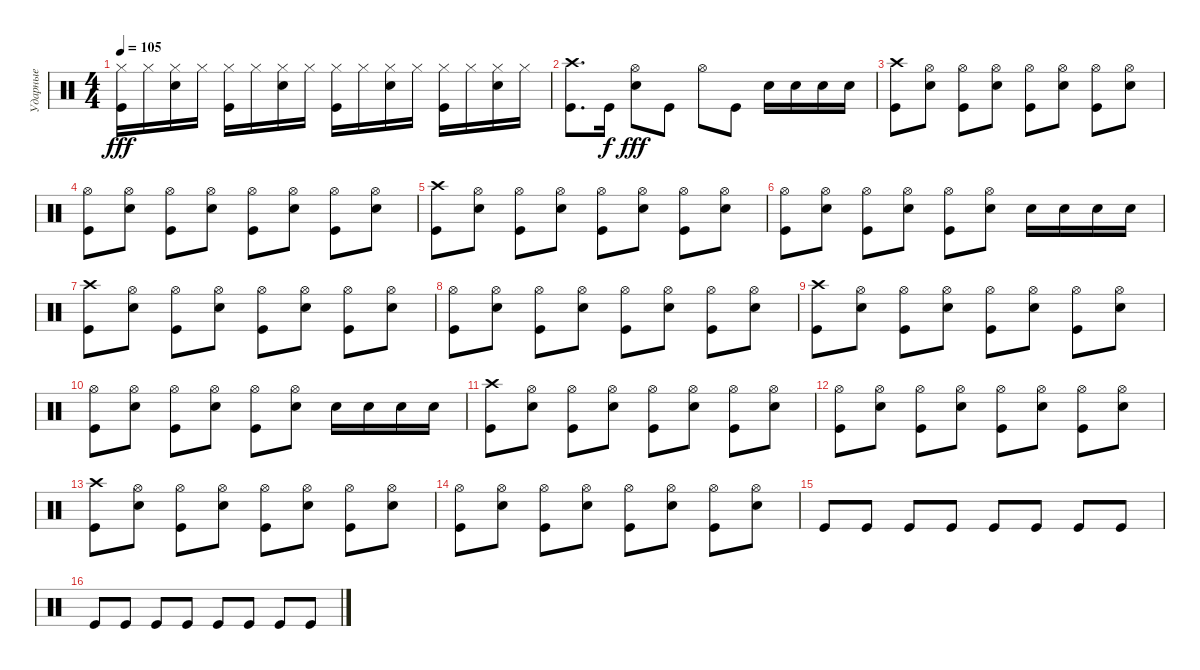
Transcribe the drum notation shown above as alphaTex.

\track ("Ударные" "Ударные") {instrument percussion}
\staff {score}
\articulation defaults
\ts (4 4)
\tempo 105
\clef neutral
\ks c
("Kick (hit)" "Hi-Hat (closed)").16{dy fff} "Hi-Hat (closed)".16 ("Hi-Hat (closed)" "Electric Snare (hit)").16 "Hi-Hat (closed)".16 ("Hi-Hat (closed)" "Kick (hit)").16 "Hi-Hat (closed)".16 ("Hi-Hat (closed)" "Electric Snare (hit)").16 "Hi-Hat (closed)".16 ("Hi-Hat (closed)" "Kick (hit)").16 "Hi-Hat (closed)".16 ("Hi-Hat (closed)" "Electric Snare (hit)").16 "Hi-Hat (closed)".16 ("Hi-Hat (closed)" "Kick (hit)").16 "Hi-Hat (closed)".16 ("Hi-Hat (closed)" "Electric Snare (hit)").16 "Hi-Hat (closed)".16 |
("Crash high (hit)" "Kick (hit)").8{d} "Kick (hit)".16{dy f} ("Hi-Hat (open)" "Electric Snare (hit)").8{dy fff} "Kick (hit)".8 "Hi-Hat (open)".8 "Kick (hit)".8 "Electric Snare (hit)".16 "Electric Snare (hit)".16 "Electric Snare (hit)".16 "Electric Snare (hit)".16 |
("Crash high (hit)" "Kick (hit)").8 ("Electric Snare (hit)" "Hi-Hat (open)").8 ("Hi-Hat (open)" "Kick (hit)").8 ("Hi-Hat (open)" "Electric Snare (hit)").8 ("Kick (hit)" "Hi-Hat (open)").8 ("Electric Snare (hit)" "Hi-Hat (open)").8 ("Kick (hit)" "Hi-Hat (open)").8 ("Electric Snare (hit)" "Hi-Hat (open)").8 |
("Hi-Hat (open)" "Kick (hit)").8 ("Electric Snare (hit)" "Hi-Hat (open)").8 ("Hi-Hat (open)" "Kick (hit)").8 ("Hi-Hat (open)" "Electric Snare (hit)").8 ("Kick (hit)" "Hi-Hat (open)").8 ("Electric Snare (hit)" "Hi-Hat (open)").8 ("Kick (hit)" "Hi-Hat (open)").8 ("Electric Snare (hit)" "Hi-Hat (open)").8 |
("Crash high (hit)" "Kick (hit)").8 ("Electric Snare (hit)" "Hi-Hat (open)").8 ("Hi-Hat (open)" "Kick (hit)").8 ("Hi-Hat (open)" "Electric Snare (hit)").8 ("Kick (hit)" "Hi-Hat (open)").8 ("Electric Snare (hit)" "Hi-Hat (open)").8 ("Kick (hit)" "Hi-Hat (open)").8 ("Electric Snare (hit)" "Hi-Hat (open)").8 |
("Hi-Hat (open)" "Kick (hit)").8 ("Electric Snare (hit)" "Hi-Hat (open)").8 ("Hi-Hat (open)" "Kick (hit)").8 ("Hi-Hat (open)" "Electric Snare (hit)").8 ("Kick (hit)" "Hi-Hat (open)").8 ("Electric Snare (hit)" "Hi-Hat (open)").8 "Electric Snare (hit)".16 "Electric Snare (hit)".16 "Electric Snare (hit)".16 "Electric Snare (hit)".16 |
("Crash high (hit)" "Kick (hit)").8 ("Electric Snare (hit)" "Hi-Hat (open)").8 ("Hi-Hat (open)" "Kick (hit)").8 ("Hi-Hat (open)" "Electric Snare (hit)").8 ("Kick (hit)" "Hi-Hat (open)").8 ("Electric Snare (hit)" "Hi-Hat (open)").8 ("Kick (hit)" "Hi-Hat (open)").8 ("Electric Snare (hit)" "Hi-Hat (open)").8 |
("Hi-Hat (open)" "Kick (hit)").8 ("Electric Snare (hit)" "Hi-Hat (open)").8 ("Hi-Hat (open)" "Kick (hit)").8 ("Hi-Hat (open)" "Electric Snare (hit)").8 ("Kick (hit)" "Hi-Hat (open)").8 ("Electric Snare (hit)" "Hi-Hat (open)").8 ("Kick (hit)" "Hi-Hat (open)").8 ("Electric Snare (hit)" "Hi-Hat (open)").8 |
("Crash high (hit)" "Kick (hit)").8 ("Electric Snare (hit)" "Hi-Hat (open)").8 ("Hi-Hat (open)" "Kick (hit)").8 ("Hi-Hat (open)" "Electric Snare (hit)").8 ("Kick (hit)" "Hi-Hat (open)").8 ("Electric Snare (hit)" "Hi-Hat (open)").8 ("Kick (hit)" "Hi-Hat (open)").8 ("Electric Snare (hit)" "Hi-Hat (open)").8 |
("Hi-Hat (open)" "Kick (hit)").8 ("Electric Snare (hit)" "Hi-Hat (open)").8 ("Hi-Hat (open)" "Kick (hit)").8 ("Hi-Hat (open)" "Electric Snare (hit)").8 ("Kick (hit)" "Hi-Hat (open)").8 ("Electric Snare (hit)" "Hi-Hat (open)").8 "Electric Snare (hit)".16 "Electric Snare (hit)".16 "Electric Snare (hit)".16 "Electric Snare (hit)".16 |
("Crash high (hit)" "Kick (hit)").8 ("Electric Snare (hit)" "Hi-Hat (open)").8 ("Hi-Hat (open)" "Kick (hit)").8 ("Hi-Hat (open)" "Electric Snare (hit)").8 ("Kick (hit)" "Hi-Hat (open)").8 ("Electric Snare (hit)" "Hi-Hat (open)").8 ("Kick (hit)" "Hi-Hat (open)").8 ("Electric Snare (hit)" "Hi-Hat (open)").8 |
("Hi-Hat (open)" "Kick (hit)").8 ("Electric Snare (hit)" "Hi-Hat (open)").8 ("Hi-Hat (open)" "Kick (hit)").8 ("Hi-Hat (open)" "Electric Snare (hit)").8 ("Kick (hit)" "Hi-Hat (open)").8 ("Electric Snare (hit)" "Hi-Hat (open)").8 ("Kick (hit)" "Hi-Hat (open)").8 ("Electric Snare (hit)" "Hi-Hat (open)").8 |
("Crash high (hit)" "Kick (hit)").8 ("Electric Snare (hit)" "Hi-Hat (open)").8 ("Hi-Hat (open)" "Kick (hit)").8 ("Hi-Hat (open)" "Electric Snare (hit)").8 ("Kick (hit)" "Hi-Hat (open)").8 ("Electric Snare (hit)" "Hi-Hat (open)").8 ("Kick (hit)" "Hi-Hat (open)").8 ("Electric Snare (hit)" "Hi-Hat (open)").8 |
("Hi-Hat (open)" "Kick (hit)").8 ("Electric Snare (hit)" "Hi-Hat (open)").8 ("Hi-Hat (open)" "Kick (hit)").8 ("Hi-Hat (open)" "Electric Snare (hit)").8 ("Kick (hit)" "Hi-Hat (open)").8 ("Electric Snare (hit)" "Hi-Hat (open)").8 ("Kick (hit)" "Hi-Hat (open)").8 ("Electric Snare (hit)" "Hi-Hat (open)").8 |
"Kick (hit)".8 "Kick (hit)".8 "Kick (hit)".8 "Kick (hit)".8 "Kick (hit)".8 "Kick (hit)".8 "Kick (hit)".8 "Kick (hit)".8 |
"Kick (hit)".8 "Kick (hit)".8 "Kick (hit)".8 "Kick (hit)".8 "Kick (hit)".8 "Kick (hit)".8 "Kick (hit)".8 "Kick (hit)".8
